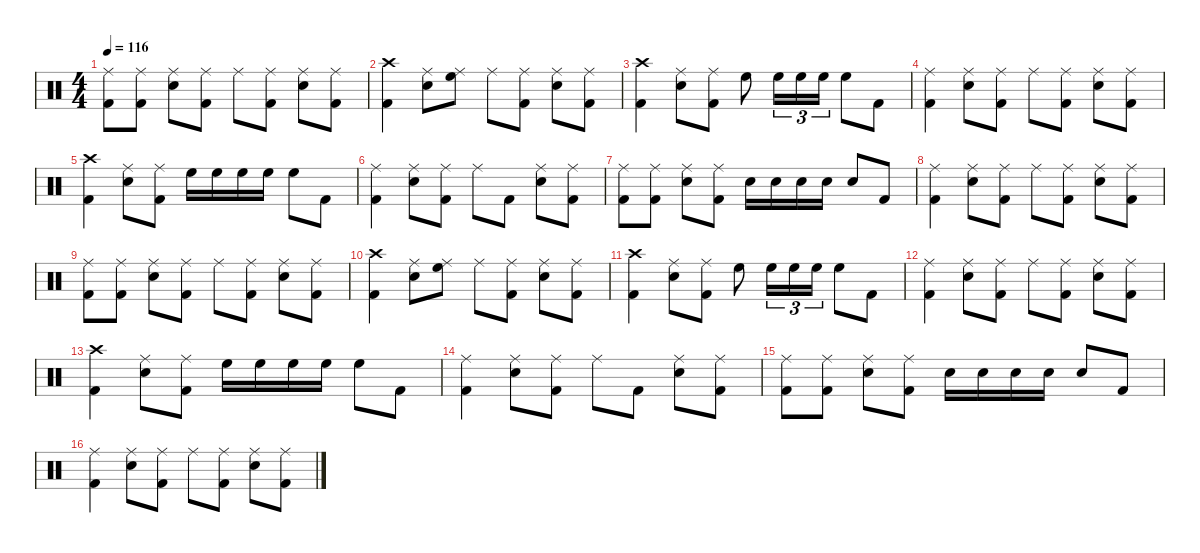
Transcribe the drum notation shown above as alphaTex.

\defaultSystemsLayout 4
\hideDynamics
\bracketExtendMode nobrackets
\singleTrackTrackNamePolicy hidden
\multiTrackTrackNamePolicy hidden
\firstSystemTrackNameMode fullname
\firstSystemTrackNameOrientation horizontal
\otherSystemsTrackNameOrientation horizontal
\track ("Drums" "drm.") {instrument percussion}
\staff {score}
\articulation defaults
\ts (4 4)
\tempo 116
\clef neutral
\ks c
("Ride (middle)" "Kick (hit) 2").8{dy f beam Down} ("Ride (middle)" "Kick (hit) 2").8{beam Down} ("Ride (middle)" "Snare (hit) 2").8{beam Down} ("Ride (middle)" "Kick (hit) 2").8{beam Down} "Ride (middle)".8{beam Down} ("Ride (middle)" "Kick (hit) 2").8{beam Down} ("Ride (middle)" "Snare (hit) 2").8{beam Down} ("Ride (middle)" "Kick (hit) 2").8{beam Down} |
("Crash high (hit)" "Kick (hit) 2").4{beam Down} ("Ride (middle)" "Snare (hit) 2").8{beam Down} ("Ride (middle)" "High Floor Tom (hit)").8{beam Down} "Ride (middle)".8{beam Down} ("Ride (middle)" "Kick (hit) 2").8{beam Down} ("Ride (middle)" "Snare (hit) 2").8{beam Down} ("Ride (middle)" "Kick (hit) 2").8{beam Down} |
("Crash high (hit)" "Kick (hit) 2").4{beam Down} ("Ride (middle)" "Snare (hit) 2").8{beam Down} ("Ride (middle)" "Kick (hit) 2").8{beam Down} "High Floor Tom (hit)".8{beam Down} "High Floor Tom (hit)".16{tu (3 2) beam Down} "High Floor Tom (hit)".16{tu (3 2) beam Down} "High Floor Tom (hit)".16{tu (3 2) beam Down} "High Floor Tom (hit)".8{beam Down} "Kick (hit) 2".8{beam Down} |
("Ride (middle)" "Kick (hit) 2").4{beam Down} ("Ride (middle)" "Snare (hit) 2").8{beam Down} ("Ride (middle)" "Kick (hit) 2").8{beam Down} "Ride (middle)".8{beam Down} ("Ride (middle)" "Kick (hit) 2").8{beam Down} ("Ride (middle)" "Snare (hit) 2").8{beam Down} ("Ride (middle)" "Kick (hit) 2").8{beam Down} |
("Crash high (hit)" "Kick (hit) 2").4{beam Down} ("Ride (middle)" "Snare (hit) 2").8{beam Down} ("Ride (middle)" "Kick (hit) 2").8{beam Down} "High Floor Tom (hit)".16{beam Down} "High Floor Tom (hit)".16{beam Down} "High Floor Tom (hit)".16{beam Down} "High Floor Tom (hit)".16{beam Down} "High Floor Tom (hit)".8{beam Down} "Kick (hit) 2".8{beam Down} |
("Ride (middle)" "Kick (hit) 2").4{beam Down} ("Ride (middle)" "Snare (hit) 2").8{beam Down} ("Ride (middle)" "Kick (hit) 2").8{beam Down} "Ride (middle)".8{beam Down} "Kick (hit) 2".8{beam Down} ("Ride (middle)" "Snare (hit) 2").8{beam Down} ("Ride (middle)" "Kick (hit) 2").8{beam Down} |
("Ride (middle)" "Kick (hit) 2").8{beam Down} ("Ride (middle)" "Kick (hit) 2").8{beam Down} ("Ride (middle)" "Snare (hit) 2").8{beam Down} ("Ride (middle)" "Kick (hit) 2").8{beam Down} "Snare (hit) 2".16{beam Down} "Snare (hit) 2".16{beam Down} "Snare (hit) 2".16{beam Down} "Snare (hit) 2".16{beam Down} "Snare (hit) 2".8{beam Up} "Kick (hit) 2".8{beam Up} |
("Ride (middle)" "Kick (hit) 2").4{beam Down} ("Ride (middle)" "Snare (hit) 2").8{beam Down} ("Ride (middle)" "Kick (hit) 2").8{beam Down} "Ride (middle)".8{beam Down} ("Ride (middle)" "Kick (hit) 2").8{beam Down} ("Ride (middle)" "Snare (hit) 2").8{beam Down} ("Ride (middle)" "Kick (hit) 2").8{beam Down} |
("Ride (middle)" "Kick (hit) 2").8{beam Down} ("Ride (middle)" "Kick (hit) 2").8{beam Down} ("Ride (middle)" "Snare (hit) 2").8{beam Down} ("Ride (middle)" "Kick (hit) 2").8{beam Down} "Ride (middle)".8{beam Down} ("Ride (middle)" "Kick (hit) 2").8{beam Down} ("Ride (middle)" "Snare (hit) 2").8{beam Down} ("Ride (middle)" "Kick (hit) 2").8{beam Down} |
("Crash high (hit)" "Kick (hit) 2").4{beam Down} ("Ride (middle)" "Snare (hit) 2").8{beam Down} ("Ride (middle)" "High Floor Tom (hit)").8{beam Down} "Ride (middle)".8{beam Down} ("Ride (middle)" "Kick (hit) 2").8{beam Down} ("Ride (middle)" "Snare (hit) 2").8{beam Down} ("Ride (middle)" "Kick (hit) 2").8{beam Down} |
("Crash high (hit)" "Kick (hit) 2").4{beam Down} ("Ride (middle)" "Snare (hit) 2").8{beam Down} ("Ride (middle)" "Kick (hit) 2").8{beam Down} "High Floor Tom (hit)".8{beam Down} "High Floor Tom (hit)".16{tu (3 2) beam Down} "High Floor Tom (hit)".16{tu (3 2) beam Down} "High Floor Tom (hit)".16{tu (3 2) beam Down} "High Floor Tom (hit)".8{beam Down} "Kick (hit) 2".8{beam Down} |
("Ride (middle)" "Kick (hit) 2").4{beam Down} ("Ride (middle)" "Snare (hit) 2").8{beam Down} ("Ride (middle)" "Kick (hit) 2").8{beam Down} "Ride (middle)".8{beam Down} ("Ride (middle)" "Kick (hit) 2").8{beam Down} ("Ride (middle)" "Snare (hit) 2").8{beam Down} ("Ride (middle)" "Kick (hit) 2").8{beam Down} |
("Crash high (hit)" "Kick (hit) 2").4{beam Down} ("Ride (middle)" "Snare (hit) 2").8{beam Down} ("Ride (middle)" "Kick (hit) 2").8{beam Down} "High Floor Tom (hit)".16{beam Down} "High Floor Tom (hit)".16{beam Down} "High Floor Tom (hit)".16{beam Down} "High Floor Tom (hit)".16{beam Down} "High Floor Tom (hit)".8{beam Down} "Kick (hit) 2".8{beam Down} |
("Ride (middle)" "Kick (hit) 2").4{beam Down} ("Ride (middle)" "Snare (hit) 2").8{beam Down} ("Ride (middle)" "Kick (hit) 2").8{beam Down} "Ride (middle)".8{beam Down} "Kick (hit) 2".8{beam Down} ("Ride (middle)" "Snare (hit) 2").8{beam Down} ("Ride (middle)" "Kick (hit) 2").8{beam Down} |
("Ride (middle)" "Kick (hit) 2").8{beam Down} ("Ride (middle)" "Kick (hit) 2").8{beam Down} ("Ride (middle)" "Snare (hit) 2").8{beam Down} ("Ride (middle)" "Kick (hit) 2").8{beam Down} "Snare (hit) 2".16{beam Down} "Snare (hit) 2".16{beam Down} "Snare (hit) 2".16{beam Down} "Snare (hit) 2".16{beam Down} "Snare (hit) 2".8{beam Up} "Kick (hit) 2".8{beam Up} |
("Ride (middle)" "Kick (hit) 2").4{beam Down} ("Ride (middle)" "Snare (hit) 2").8{beam Down} ("Ride (middle)" "Kick (hit) 2").8{beam Down} "Ride (middle)".8{beam Down} ("Ride (middle)" "Kick (hit) 2").8{beam Down} ("Ride (middle)" "Snare (hit) 2").8{beam Down} ("Ride (middle)" "Kick (hit) 2").8{beam Down}
